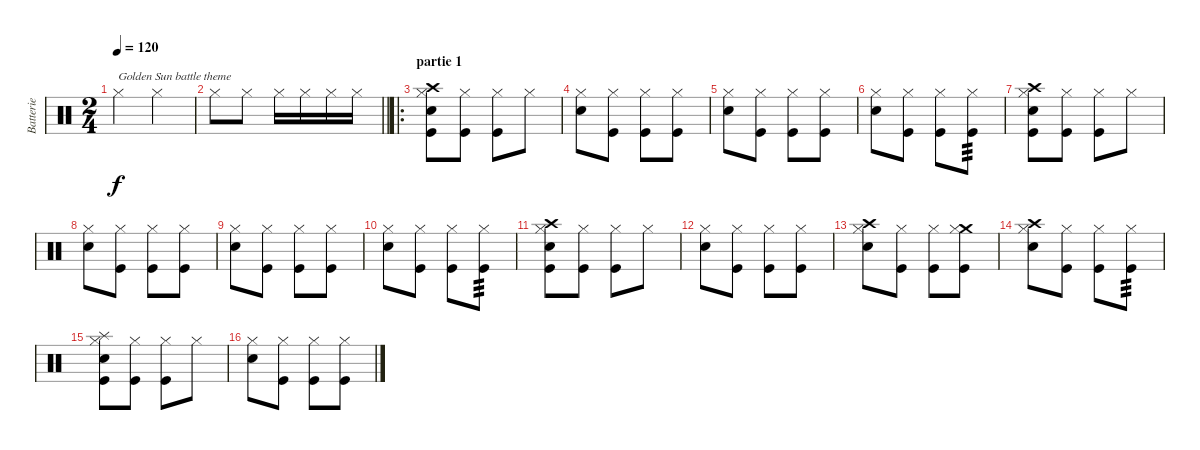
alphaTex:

\track ("Batterie" "Batterie") {instrument percussion}
\staff {score}
\articulation defaults
\ts (2 4)
\tempo 120
\clef neutral
\ks c "Hi-Hat (closed)".4{txt "Golden Sun battle theme" dy f} "Hi-Hat (closed)".4
|
\barLineRight lightlight "Hi-Hat (closed)".8 "Hi-Hat (closed)".8 "Hi-Hat (closed)".16 "Hi-Hat (closed)".16 "Hi-Hat (closed)".16 "Hi-Hat (closed)".16
|
\ro
\section ("" "partie 1")
("Crash high (hit)" "Hi-Hat (closed)" "Electric Snare (hit)" "Kick (hit)").8 ("Hi-Hat (closed)" "Kick (hit)").8 ("Hi-Hat (closed)" "Kick (hit)").8 "Hi-Hat (closed)".8 |
("Hi-Hat (closed)" "Electric Snare (hit)").8 ("Hi-Hat (closed)" "Kick (hit)").8 ("Hi-Hat (closed)" "Kick (hit)").8 ("Hi-Hat (closed)" "Kick (hit)").8 |
("Hi-Hat (closed)" "Electric Snare (hit)").8 ("Hi-Hat (closed)" "Kick (hit)").8 ("Hi-Hat (closed)" "Kick (hit)").8 ("Hi-Hat (closed)" "Kick (hit)").8 |
("Hi-Hat (closed)" "Electric Snare (hit)").8 ("Hi-Hat (closed)" "Kick (hit)").8 ("Hi-Hat (closed)" "Kick (hit)").8 ("Hi-Hat (closed)" "Kick (hit)").8{tp 3} |
("Crash high (hit)" "Hi-Hat (closed)" "Electric Snare (hit)" "Kick (hit)").8 ("Hi-Hat (closed)" "Kick (hit)").8 ("Hi-Hat (closed)" "Kick (hit)").8 "Hi-Hat (closed)".8 |
("Hi-Hat (closed)" "Electric Snare (hit)").8 ("Hi-Hat (closed)" "Kick (hit)").8 ("Hi-Hat (closed)" "Kick (hit)").8 ("Hi-Hat (closed)" "Kick (hit)").8 |
("Hi-Hat (closed)" "Electric Snare (hit)").8 ("Hi-Hat (closed)" "Kick (hit)").8 ("Hi-Hat (closed)" "Kick (hit)").8 ("Hi-Hat (closed)" "Kick (hit)").8 |
("Hi-Hat (closed)" "Electric Snare (hit)").8 ("Hi-Hat (closed)" "Kick (hit)").8 ("Hi-Hat (closed)" "Kick (hit)").8 ("Hi-Hat (closed)" "Kick (hit)").8{tp 3} |
("Crash high (hit)" "Hi-Hat (closed)" "Electric Snare (hit)" "Kick (hit)").8 ("Hi-Hat (closed)" "Kick (hit)").8 ("Hi-Hat (closed)" "Kick (hit)").8 "Hi-Hat (closed)".8 |
("Hi-Hat (closed)" "Electric Snare (hit)").8 ("Hi-Hat (closed)" "Kick (hit)").8 ("Hi-Hat (closed)" "Kick (hit)").8 ("Hi-Hat (closed)" "Kick (hit)").8 |
("Crash high (hit)" "Hi-Hat (closed)" "Electric Snare (hit)").8 ("Hi-Hat (closed)" "Kick (hit)").8 ("Hi-Hat (closed)" "Kick (hit)").8 ("Crash medium (hit)" "Hi-Hat (closed)" "Kick (hit)").8 |
("Crash high (hit)" "Hi-Hat (closed)" "Electric Snare (hit)").8 ("Hi-Hat (closed)" "Kick (hit)").8 ("Hi-Hat (closed)" "Kick (hit)").8 ("Hi-Hat (closed)" "Kick (hit)").8{tp 3} |
("Splash (hit)" "Hi-Hat (closed)" "Electric Snare (hit)" "Kick (hit)").8 ("Hi-Hat (closed)" "Kick (hit)").8 ("Hi-Hat (closed)" "Kick (hit)").8 "Hi-Hat (closed)".8 |
("Hi-Hat (closed)" "Electric Snare (hit)").8 ("Hi-Hat (closed)" "Kick (hit)").8 ("Hi-Hat (closed)" "Kick (hit)").8 ("Hi-Hat (closed)" "Kick (hit)").8
